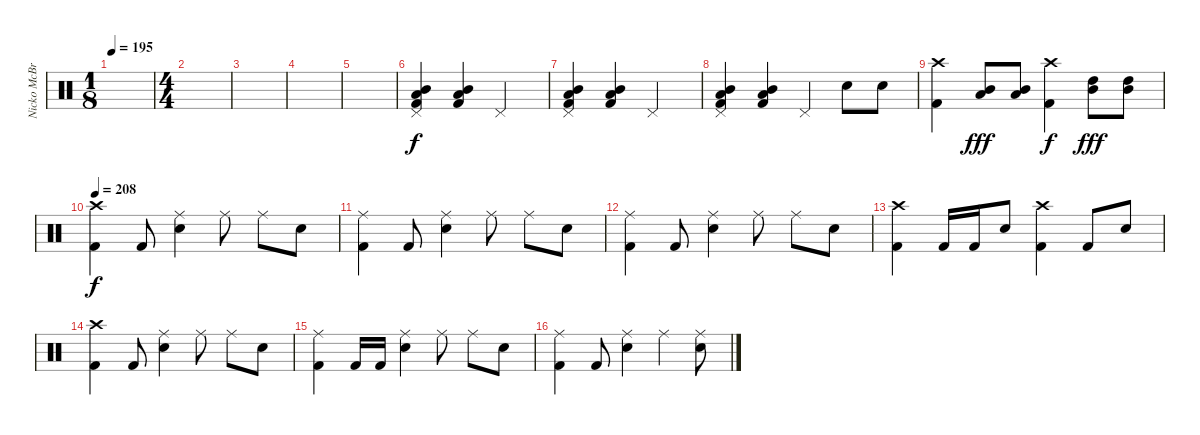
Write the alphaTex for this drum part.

\track ("Nicko McBrain" "Nicko McBr") {instrument percussion}
\staff {score}
\articulation defaults
\ts (1 8)
\tempo 195
\clef neutral
\ks c
|
\ts (4 4)
|
|
|
|
("Pedal Hi-Hat (hit)" "Mid Tom (hit)" "Low Tom (hit)" "Kick (hit) 2").4 ("Mid Tom (hit)" "Low Tom (hit)" "Kick (hit) 2").4 "Pedal Hi-Hat (hit)".2 |
("Pedal Hi-Hat (hit)" "Mid Tom (hit)" "Low Tom (hit)" "Kick (hit) 2").4 ("Mid Tom (hit)" "Low Tom (hit)" "Kick (hit) 2").4 "Pedal Hi-Hat (hit)".2 |
("Pedal Hi-Hat (hit)" "Mid Tom (hit)" "Low Tom (hit)" "Kick (hit) 2").4 ("Mid Tom (hit)" "Low Tom (hit)" "Kick (hit) 2").4 "Pedal Hi-Hat (hit)".4 "Electric Snare (hit)".8 "Electric Snare (hit)".8 |
("Crash high (hit)" "Kick (hit) 2").4 ("Mid Tom (hit)" "Low Tom (hit)").8{dy fff} ("Mid Tom (hit)" "Low Tom (hit)").8 ("Crash high (hit)" "Kick (hit) 2").4{dy f} ("High Tom (hit)" "Mid Tom (hit)").8{dy fff} ("High Tom (hit)" "Mid Tom (hit)").8 |
\tempo 208
("Crash high (hit)" "Kick (hit) 2").4{dy f} "Kick (hit) 2".8 ("Ride (middle)" "Electric Snare (hit)").4 "Ride (middle)".8 "Ride (middle)".8 "Electric Snare (hit)".8 |
("Ride (middle)" "Kick (hit) 2").4 "Kick (hit) 2".8 ("Ride (middle)" "Electric Snare (hit)").4 "Ride (middle)".8 "Ride (middle)".8 "Electric Snare (hit)".8 |
("Ride (middle)" "Kick (hit) 2").4 "Kick (hit) 2".8 ("Ride (middle)" "Electric Snare (hit)").4 "Ride (middle)".8 "Ride (middle)".8 "Electric Snare (hit)".8 |
("Crash high (hit)" "Kick (hit) 2").4 "Kick (hit) 2".16 "Kick (hit) 2".16 "Electric Snare (hit)".8 ("Crash high (hit)" "Kick (hit) 2").4 "Kick (hit) 2".8 "Electric Snare (hit)".8 |
("Crash high (hit)" "Kick (hit) 2").4 "Kick (hit) 2".8 ("Ride (middle)" "Electric Snare (hit)").4 "Ride (middle)".8 "Ride (middle)".8 "Electric Snare (hit)".8 |
("Ride (middle)" "Kick (hit) 2").4 "Kick (hit) 2".16 "Kick (hit) 2".16 ("Ride (middle)" "Electric Snare (hit)").4 "Ride (middle)".8 "Ride (middle)".8 "Electric Snare (hit)".8 |
("Ride (middle)" "Kick (hit) 2").4 "Kick (hit) 2".8 ("Ride (middle)" "Electric Snare (hit)").4 "Ride (middle)".4 ("Ride (middle)" "Electric Snare (hit)").8
